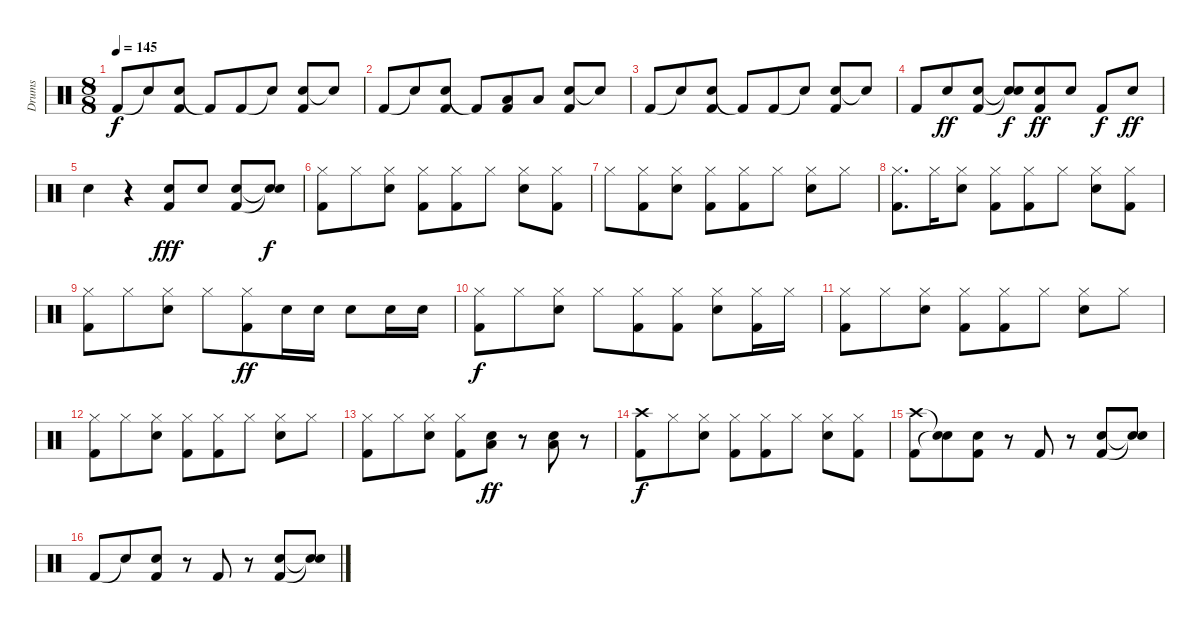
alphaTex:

\track ("Drums" "Drums") {instrument percussion}
\staff {score}
\articulation defaults
\ts (8 8)
\tempo 145
\clef neutral
\ks c "Kick (hit) 2".8{dy f} "Snare (hit)"{t}.8
("Snare (hit) 2" "Kick (hit) 2").8 "Kick (hit) 2"{t}.8 "Kick (hit) 2".8 "Snare (hit)"{t}.8 ("Snare (hit) 2" "Kick (hit) 2").8 "Snare (hit)"{t}.8 |
"Kick (hit) 2".8 "Snare (hit)"{t}.8 ("Snare (hit) 2" "Kick (hit) 2").8 "Kick (hit) 2"{t}.8 ("Low Floor Tom (hit)" "Kick (hit) 2").8 "Low Floor Tom (hit)".8 ("Snare (hit) 2" "Kick (hit) 2").8 "Snare (hit)"{t}.8 |
"Kick (hit) 2".8 "Snare (hit)"{t}.8 ("Snare (hit) 2" "Kick (hit) 2").8 "Kick (hit) 2"{t}.8 "Kick (hit) 2".8 "Snare (hit)"{t}.8 ("Snare (hit) 2" "Kick (hit) 2").8 "Snare (hit)"{t}.8 |
"Kick (hit) 2".8 "Snare (hit) 2".8{dy ff} ("Snare (hit) 2" "Kick (hit) 2").8 ("Snare (hit)"{t} "Snare (hit)"{t}).8{dy f} ("Snare (hit) 2" "Kick (hit) 2").8{dy ff} "Snare (hit) 2".8 "Kick (hit) 2".8{dy f} "Snare (hit) 2".8{dy ff} |
"Snare (hit) 2".4 r.4 ("Snare (hit) 2" "Kick (hit) 2").8{dy fff} "Snare (hit) 2".8 ("Snare (hit) 2" "Kick (hit) 2").8 ("Snare (hit)"{t} "Snare (hit)"{t}).8{dy f} |
("Kick (hit) 2" "Hi-Hat (closed)").8 "Hi-Hat (closed)".8 ("Snare (hit) 2" "Hi-Hat (closed)").8 ("Kick (hit) 2" "Hi-Hat (closed)").8 ("Kick (hit) 2" "Hi-Hat (closed)").8 "Hi-Hat (closed)".8 ("Snare (hit) 2" "Hi-Hat (closed)").8 ("Kick (hit) 2" "Hi-Hat (closed)").8 |
"Hi-Hat (closed)".8 ("Kick (hit) 2" "Hi-Hat (closed)").8 ("Snare (hit) 2" "Hi-Hat (closed)").8 ("Kick (hit) 2" "Hi-Hat (closed)").8 ("Kick (hit) 2" "Hi-Hat (closed)").8 "Hi-Hat (closed)".8 ("Snare (hit) 2" "Hi-Hat (closed)").8 "Hi-Hat (closed)".8 |
("Kick (hit) 2" "Hi-Hat (closed)").8{d} "Hi-Hat (closed)".16 ("Snare (hit) 2" "Hi-Hat (closed)").8 ("Kick (hit) 2" "Hi-Hat (closed)").8 ("Kick (hit) 2" "Hi-Hat (closed)").8 "Hi-Hat (closed)".8 ("Snare (hit) 2" "Hi-Hat (closed)").8 ("Kick (hit) 2" "Hi-Hat (closed)").8 |
("Kick (hit) 2" "Hi-Hat (closed)").8 "Hi-Hat (closed)".8 ("Snare (hit) 2" "Hi-Hat (closed)").8 "Hi-Hat (closed)".8 ("Kick (hit) 2" "Hi-Hat (closed)").8{dy ff} "Snare (hit) 2".16 "Snare (hit) 2".16 "Snare (hit) 2".8 "Snare (hit) 2".16 "Snare (hit) 2".16 |
("Kick (hit) 2" "Hi-Hat (closed)").8{dy f} "Hi-Hat (closed)".8 ("Snare (hit) 2" "Hi-Hat (closed)").8 "Hi-Hat (closed)".8 ("Kick (hit) 2" "Hi-Hat (closed)").8 ("Kick (hit) 2" "Hi-Hat (closed)").8 ("Snare (hit) 2" "Hi-Hat (closed)").8 ("Kick (hit) 2" "Hi-Hat (closed)").16 "Hi-Hat (closed)".16 |
("Kick (hit) 2" "Hi-Hat (closed)").8 "Hi-Hat (closed)".8 ("Snare (hit) 2" "Hi-Hat (closed)").8 ("Kick (hit) 2" "Hi-Hat (closed)").8 ("Kick (hit) 2" "Hi-Hat (closed)").8 "Hi-Hat (closed)".8 ("Snare (hit) 2" "Hi-Hat (closed)").8 "Hi-Hat (closed)".8 |
("Kick (hit) 2" "Hi-Hat (closed)").8 "Hi-Hat (closed)".8 ("Snare (hit) 2" "Hi-Hat (closed)").8 ("Kick (hit) 2" "Hi-Hat (closed)").8 ("Kick (hit) 2" "Hi-Hat (closed)").8 "Hi-Hat (closed)".8 ("Snare (hit) 2" "Hi-Hat (closed)").8 "Hi-Hat (closed)".8 |
("Kick (hit) 2" "Hi-Hat (closed)").8 "Hi-Hat (closed)".8 ("Snare (hit) 2" "Hi-Hat (closed)").8 ("Kick (hit) 2" "Hi-Hat (closed)").8 ("Snare (hit) 2" "Low Floor Tom (hit)").8{dy ff} r.8 ("Snare (hit) 2" "Low Floor Tom (hit)").8 r.8 |
("Kick (hit) 2" "Crash high (hit)").8{dy f} "Hi-Hat (closed)".8 ("Snare (hit) 2" "Hi-Hat (closed)").8 ("Kick (hit) 2" "Hi-Hat (closed)").8 ("Kick (hit) 2" "Hi-Hat (closed)").8 "Hi-Hat (closed)".8 ("Snare (hit) 2" "Hi-Hat (closed)").8 ("Kick (hit) 2" "Hi-Hat (closed)").8 |
("Crash high (hit)" "Kick (hit) 2").8 ("Snare (hit)"{t} "Snare (hit)"{t}).8 ("Snare (hit) 2" "Kick (hit) 2").8 r.8 "Kick (hit) 2".8 r.8 ("Snare (hit) 2" "Kick (hit) 2").8 ("Snare (hit)"{t} "Snare (hit)"{t}).8 |
"Kick (hit) 2".8 "Snare (hit)"{t}.8 ("Snare (hit) 2" "Kick (hit) 2").8 r.8 "Kick (hit) 2".8 r.8 ("Snare (hit) 2" "Kick (hit) 2").8 ("Snare (hit)"{t} "Snare (hit)"{t}).8
